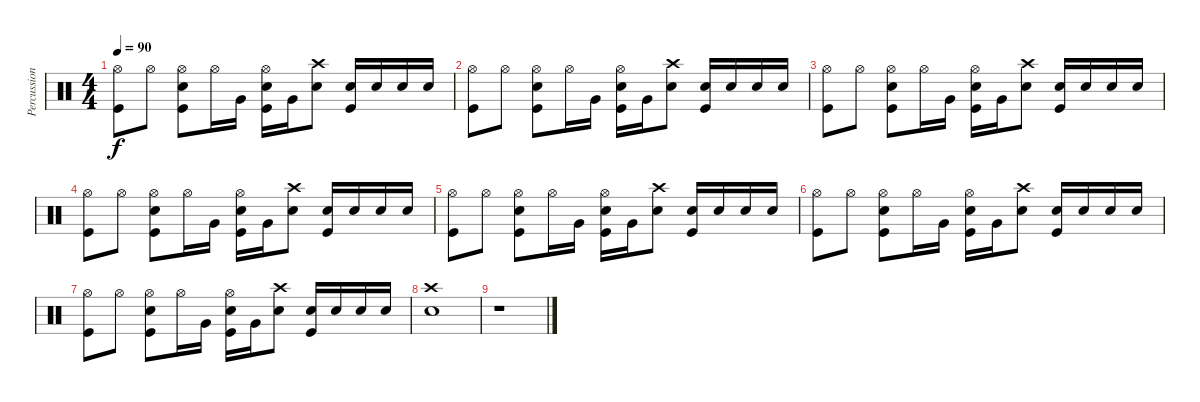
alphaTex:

\track ("Percussion" "Percussion") {instrument percussion}
\staff {score}
\articulation defaults
\ts (4 4)
\tempo 90
\clef neutral
\ks c
("Hi-Hat (open)" "Kick (hit)").8{dy f} "Hi-Hat (open)".8 ("Hi-Hat (open)" "Snare (hit) 2" "Kick (hit)").8 "Hi-Hat (open)".16 "Very Low Tom (hit)".16 ("Hi-Hat (open)" "Snare (hit) 2" "Kick (hit)").16 "Very Low Tom (hit)".16 ("Crash high (hit)" "Snare (hit) 2").8 ("Snare (hit) 2" "Kick (hit)").16 "Snare (hit) 2".16 "Snare (hit) 2".16 "Snare (hit) 2".16 |
("Hi-Hat (open)" "Kick (hit)").8 "Hi-Hat (open)".8 ("Hi-Hat (open)" "Snare (hit) 2" "Kick (hit)").8 "Hi-Hat (open)".16 "Very Low Tom (hit)".16 ("Hi-Hat (open)" "Snare (hit) 2" "Kick (hit)").16 "Very Low Tom (hit)".16 ("Crash high (hit)" "Snare (hit) 2").8 ("Snare (hit) 2" "Kick (hit)").16 "Snare (hit) 2".16 "Snare (hit) 2".16 "Snare (hit) 2".16 |
("Hi-Hat (open)" "Kick (hit)").8 "Hi-Hat (open)".8 ("Hi-Hat (open)" "Snare (hit) 2" "Kick (hit)").8 "Hi-Hat (open)".16 "Very Low Tom (hit)".16 ("Hi-Hat (open)" "Snare (hit) 2" "Kick (hit)").16 "Very Low Tom (hit)".16 ("Crash high (hit)" "Snare (hit) 2").8 ("Snare (hit) 2" "Kick (hit)").16 "Snare (hit) 2".16 "Snare (hit) 2".16 "Snare (hit) 2".16 |
("Hi-Hat (open)" "Kick (hit)").8 "Hi-Hat (open)".8 ("Hi-Hat (open)" "Snare (hit) 2" "Kick (hit)").8 "Hi-Hat (open)".16 "Very Low Tom (hit)".16 ("Hi-Hat (open)" "Snare (hit) 2" "Kick (hit)").16 "Very Low Tom (hit)".16 ("Crash high (hit)" "Snare (hit) 2").8 ("Snare (hit) 2" "Kick (hit)").16 "Snare (hit) 2".16 "Snare (hit) 2".16 "Snare (hit) 2".16 |
("Hi-Hat (open)" "Kick (hit)").8 "Hi-Hat (open)".8 ("Hi-Hat (open)" "Snare (hit) 2" "Kick (hit)").8 "Hi-Hat (open)".16 "Very Low Tom (hit)".16 ("Hi-Hat (open)" "Snare (hit) 2" "Kick (hit)").16 "Very Low Tom (hit)".16 ("Crash high (hit)" "Snare (hit) 2").8 ("Snare (hit) 2" "Kick (hit)").16 "Snare (hit) 2".16 "Snare (hit) 2".16 "Snare (hit) 2".16 |
("Hi-Hat (open)" "Kick (hit)").8 "Hi-Hat (open)".8 ("Hi-Hat (open)" "Snare (hit) 2" "Kick (hit)").8 "Hi-Hat (open)".16 "Very Low Tom (hit)".16 ("Hi-Hat (open)" "Snare (hit) 2" "Kick (hit)").16 "Very Low Tom (hit)".16 ("Crash high (hit)" "Snare (hit) 2").8 ("Snare (hit) 2" "Kick (hit)").16 "Snare (hit) 2".16 "Snare (hit) 2".16 "Snare (hit) 2".16 |
("Hi-Hat (open)" "Kick (hit)").8 "Hi-Hat (open)".8 ("Hi-Hat (open)" "Snare (hit) 2" "Kick (hit)").8 "Hi-Hat (open)".16 "Very Low Tom (hit)".16 ("Hi-Hat (open)" "Snare (hit) 2" "Kick (hit)").16 "Very Low Tom (hit)".16 ("Crash high (hit)" "Snare (hit) 2").8 ("Snare (hit) 2" "Kick (hit)").16 "Snare (hit) 2".16 "Snare (hit) 2".16 "Snare (hit) 2".16 |
("Crash high (hit)" "Snare (hit) 2").1 |
r.1
